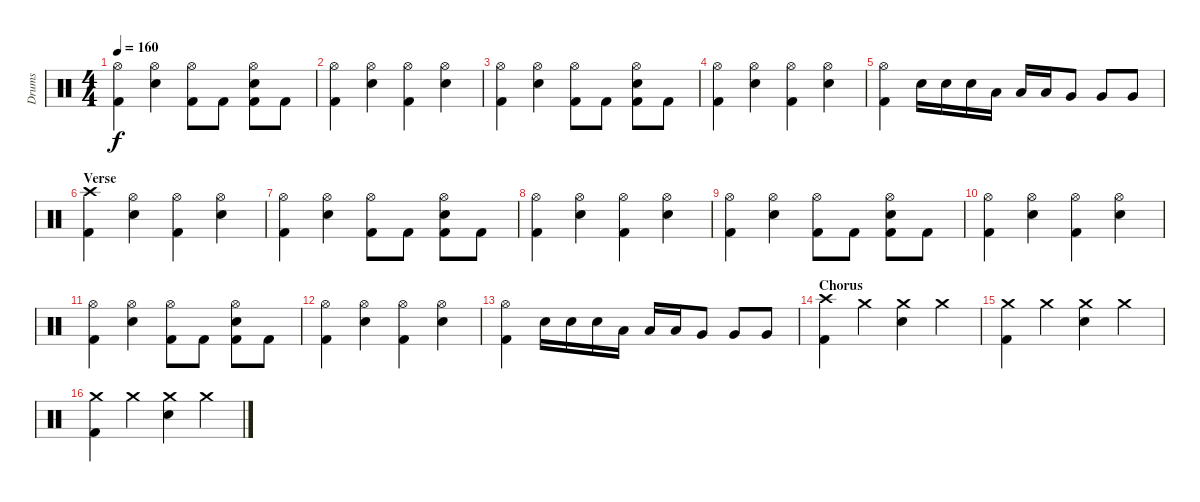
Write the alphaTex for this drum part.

\track ("Drums" "Drums") {instrument percussion}
\staff {score}
\articulation defaults
\ts (4 4)
\tempo 160
\clef neutral
\ks c
("Hi-Hat (open)" "Kick (hit) 2").4{dy f} ("Hi-Hat (open)" "Snare (hit) 2").4 ("Hi-Hat (open)" "Kick (hit) 2").8 "Kick (hit) 2".8 ("Hi-Hat (open)" "Snare (hit) 2" "Kick (hit) 2").8 "Kick (hit) 2".8 |
("Hi-Hat (open)" "Kick (hit) 2").4 ("Hi-Hat (open)" "Snare (hit) 2").4 ("Hi-Hat (open)" "Kick (hit) 2").4 ("Hi-Hat (open)" "Snare (hit) 2").4 |
("Hi-Hat (open)" "Kick (hit) 2").4 ("Hi-Hat (open)" "Snare (hit) 2").4 ("Hi-Hat (open)" "Kick (hit) 2").8 "Kick (hit) 2".8 ("Hi-Hat (open)" "Snare (hit) 2" "Kick (hit) 2").8 "Kick (hit) 2".8 |
("Hi-Hat (open)" "Kick (hit) 2").4 ("Hi-Hat (open)" "Snare (hit) 2").4 ("Hi-Hat (open)" "Kick (hit) 2").4 ("Hi-Hat (open)" "Snare (hit) 2").4 |
("Hi-Hat (open)" "Kick (hit) 2").4 "Snare (hit) 2".16 "Snare (hit) 2".16 "Snare (hit) 2".16 "Low Tom (hit)".16 "Low Tom (hit)".16 "Low Tom (hit)".16 "Very Low Tom (hit)".8 "Very Low Tom (hit)".8 "Very Low Tom (hit)".8 |
\section ("" "Verse")
("Crash high (hit)" "Kick (hit) 2").4 ("Hi-Hat (open)" "Snare (hit) 2").4 ("Hi-Hat (open)" "Kick (hit) 2").4 ("Hi-Hat (open)" "Snare (hit) 2").4 |
("Hi-Hat (open)" "Kick (hit) 2").4 ("Hi-Hat (open)" "Snare (hit) 2").4 ("Hi-Hat (open)" "Kick (hit) 2").8 "Kick (hit) 2".8 ("Hi-Hat (open)" "Snare (hit) 2" "Kick (hit) 2").8 "Kick (hit) 2".8 |
("Hi-Hat (open)" "Kick (hit) 2").4 ("Hi-Hat (open)" "Snare (hit) 2").4 ("Hi-Hat (open)" "Kick (hit) 2").4 ("Hi-Hat (open)" "Snare (hit) 2").4 |
("Hi-Hat (open)" "Kick (hit) 2").4 ("Hi-Hat (open)" "Snare (hit) 2").4 ("Hi-Hat (open)" "Kick (hit) 2").8 "Kick (hit) 2".8 ("Hi-Hat (open)" "Snare (hit) 2" "Kick (hit) 2").8 "Kick (hit) 2".8 |
("Hi-Hat (open)" "Kick (hit) 2").4 ("Hi-Hat (open)" "Snare (hit) 2").4 ("Hi-Hat (open)" "Kick (hit) 2").4 ("Hi-Hat (open)" "Snare (hit) 2").4 |
("Hi-Hat (open)" "Kick (hit) 2").4 ("Hi-Hat (open)" "Snare (hit) 2").4 ("Hi-Hat (open)" "Kick (hit) 2").8 "Kick (hit) 2".8 ("Hi-Hat (open)" "Snare (hit) 2" "Kick (hit) 2").8 "Kick (hit) 2".8 |
("Hi-Hat (open)" "Kick (hit) 2").4 ("Hi-Hat (open)" "Snare (hit) 2").4 ("Hi-Hat (open)" "Kick (hit) 2").4 ("Hi-Hat (open)" "Snare (hit) 2").4 |
("Hi-Hat (open)" "Kick (hit) 2").4 "Snare (hit) 2".16 "Snare (hit) 2".16 "Snare (hit) 2".16 "Low Tom (hit)".16 "Low Tom (hit)".16 "Low Tom (hit)".16 "Very Low Tom (hit)".8 "Very Low Tom (hit)".8 "Very Low Tom (hit)".8 |
\section ("" "Chorus")
("Crash high (hit)" "Kick (hit) 2").4 "Crash medium (hit)".4 ("Crash medium (hit)" "Snare (hit) 2").4 "Crash medium (hit)".4 |
("Crash medium (hit)" "Kick (hit) 2").4 "Crash medium (hit)".4 ("Crash medium (hit)" "Snare (hit) 2").4 "Crash medium (hit)".4 |
("Crash medium (hit)" "Kick (hit) 2").4 "Crash medium (hit)".4 ("Crash medium (hit)" "Snare (hit) 2").4 "Crash medium (hit)".4
